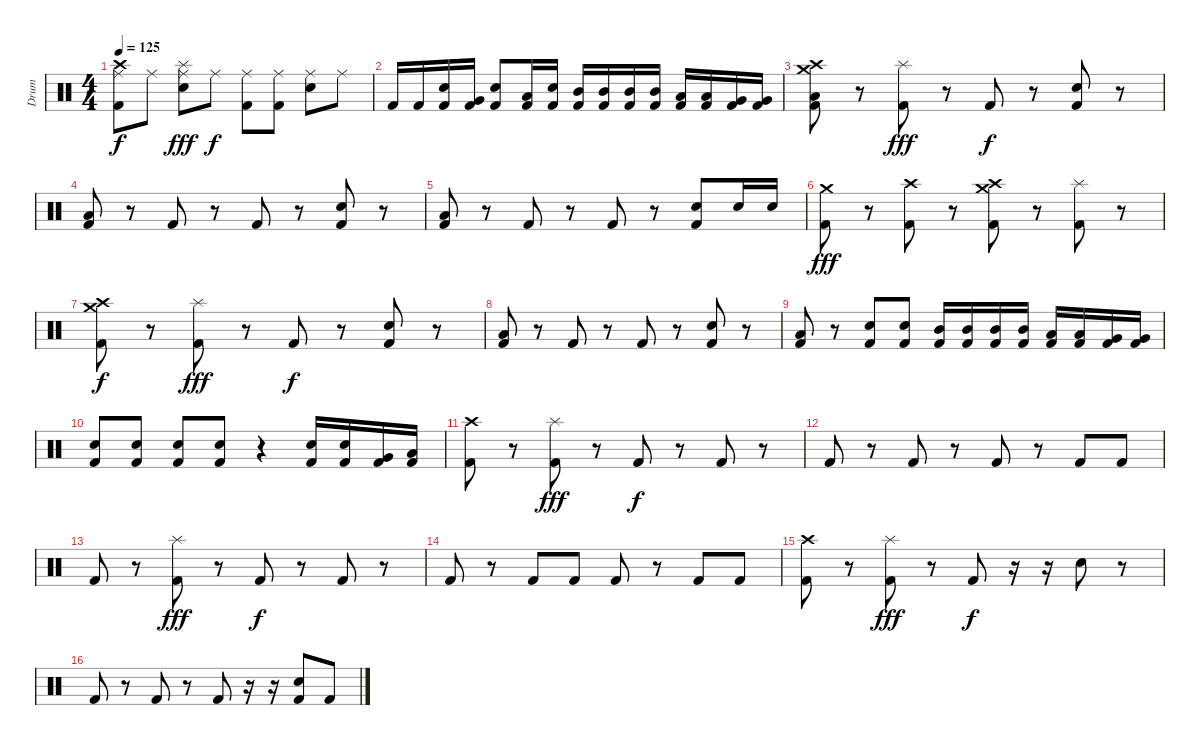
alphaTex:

\track ("Drum" "Drum") {instrument percussion}
\staff {score}
\articulation defaults
\ts (4 4)
\tempo 125
\clef neutral
\ks c
("Crash high (hit)" "Ride (middle)" "Kick (hit) 2").8{dy f} "Ride (middle)".8 ("Electric Snare (hit)" "Splash (hit)" "Ride (middle)").8{dy fff} "Ride (middle)".8{dy f} ("Ride (middle)" "Kick (hit) 2").8 ("Ride (middle)" "Kick (hit) 2").8 ("Electric Snare (hit)" "Ride (middle)").8 "Ride (middle)".8 |
"Kick (hit) 2".16 "Kick (hit) 2".16 ("Electric Snare (hit)" "Kick (hit) 2").16 ("Very Low Tom (hit)" "Kick (hit) 2").16 ("Electric Snare (hit)" "Kick (hit) 2").8 ("Low Floor Tom (hit)" "Kick (hit) 2").16 ("Electric Snare (hit)" "Kick (hit) 2").16 ("Mid Tom (hit)" "Kick (hit) 2").16 ("Mid Tom (hit)" "Kick (hit) 2").16 ("Mid Tom (hit)" "Kick (hit) 2").16 ("Mid Tom (hit)" "Kick (hit) 2").16 ("Low Tom (hit)" "Kick (hit) 2").16 ("Low Tom (hit)" "Kick (hit) 2").16 ("Very Low Tom (hit)" "Kick (hit) 2").16 ("Very Low Tom (hit)" "Kick (hit) 2").16 |
("Crash high (hit)" "Crash medium (hit)" "Low Floor Tom (hit)" "Kick (hit) 2").8 r.8 ("Splash (hit)" "Kick (hit) 2").8{dy fff} r.8 "Kick (hit) 2".8{dy f} r.8 ("Electric Snare (hit)" "Kick (hit) 2").8 r.8 |
("Low Floor Tom (hit)" "Kick (hit) 2").8 r.8 "Kick (hit) 2".8 r.8 "Kick (hit) 2".8 r.8 ("Electric Snare (hit)" "Kick (hit) 2").8 r.8 |
("Low Floor Tom (hit)" "Kick (hit) 2").8 r.8 "Kick (hit) 2".8 r.8 "Kick (hit) 2".8 r.8 ("Electric Snare (hit)" "Kick (hit) 2").8 "Electric Snare (hit)".16 "Electric Snare (hit)".16 |
("Crash medium (hit)" "Kick (hit) 2").8{dy fff} r.8 ("Crash high (hit)" "Kick (hit) 2").8 r.8 ("Crash medium (hit)" "Crash high (hit)" "Kick (hit) 2").8 r.8 ("Splash (hit)" "Kick (hit) 2").8 r.8 |
("Crash medium (hit)" "Crash high (hit)" "Kick (hit) 2").8{dy f} r.8 ("Splash (hit)" "Kick (hit) 2").8{dy fff} r.8 "Kick (hit) 2".8{dy f} r.8 ("Electric Snare (hit)" "Kick (hit) 2").8 r.8 |
("Low Floor Tom (hit)" "Kick (hit) 2").8 r.8 "Kick (hit) 2".8 r.8 "Kick (hit) 2".8 r.8 ("Electric Snare (hit)" "Kick (hit) 2").8 r.8 |
("Low Floor Tom (hit)" "Kick (hit) 2").8 r.8 ("Electric Snare (hit)" "Kick (hit) 2").8 ("Electric Snare (hit)" "Kick (hit) 2").8 ("Mid Tom (hit)" "Kick (hit) 2").16 ("Mid Tom (hit)" "Kick (hit) 2").16 ("Mid Tom (hit)" "Kick (hit) 2").16 ("Mid Tom (hit)" "Kick (hit) 2").16 ("Low Tom (hit)" "Kick (hit) 2").16 ("Low Tom (hit)" "Kick (hit) 2").16 ("Very Low Tom (hit)" "Kick (hit) 2").16 ("Very Low Tom (hit)" "Kick (hit) 2").16 |
("Electric Snare (hit)" "Kick (hit) 2").8 ("Electric Snare (hit)" "Kick (hit) 2").8 ("Electric Snare (hit)" "Kick (hit) 2").8 ("Electric Snare (hit)" "Kick (hit) 2").8 r.4 ("Electric Snare (hit)" "Kick (hit) 2").16 ("Electric Snare (hit)" "Kick (hit) 2").16 ("Very Low Tom (hit)" "Kick (hit) 2").16 ("Low Floor Tom (hit)" "Kick (hit) 2").16 |
("Crash high (hit)" "Kick (hit) 2").8 r.8 ("Splash (hit)" "Kick (hit) 2").8{dy fff} r.8 "Kick (hit) 2".8{dy f} r.8 "Kick (hit) 2".8 r.8 |
"Kick (hit) 2".8 r.8 "Kick (hit) 2".8 r.8 "Kick (hit) 2".8 r.8 "Kick (hit) 2".8 "Kick (hit) 2".8 |
"Kick (hit) 2".8 r.8 ("Splash (hit)" "Kick (hit) 2").8{dy fff} r.8 "Kick (hit) 2".8{dy f} r.8 "Kick (hit) 2".8 r.8 |
"Kick (hit) 2".8 r.8 "Kick (hit) 2".8 "Kick (hit) 2".8 "Kick (hit) 2".8 r.8 "Kick (hit) 2".8 "Kick (hit) 2".8 |
("Crash high (hit)" "Kick (hit) 2").8 r.8 ("Splash (hit)" "Kick (hit) 2").8{dy fff} r.8 "Kick (hit) 2".8{dy f} r.16 r.16 "Snare (hit) 2".8 r.8 |
"Kick (hit) 2".8 r.8 "Kick (hit) 2".8 r.8 "Kick (hit) 2".8 r.16 r.16 ("Snare (hit) 2" "Kick (hit) 2").8 "Kick (hit) 2".8
